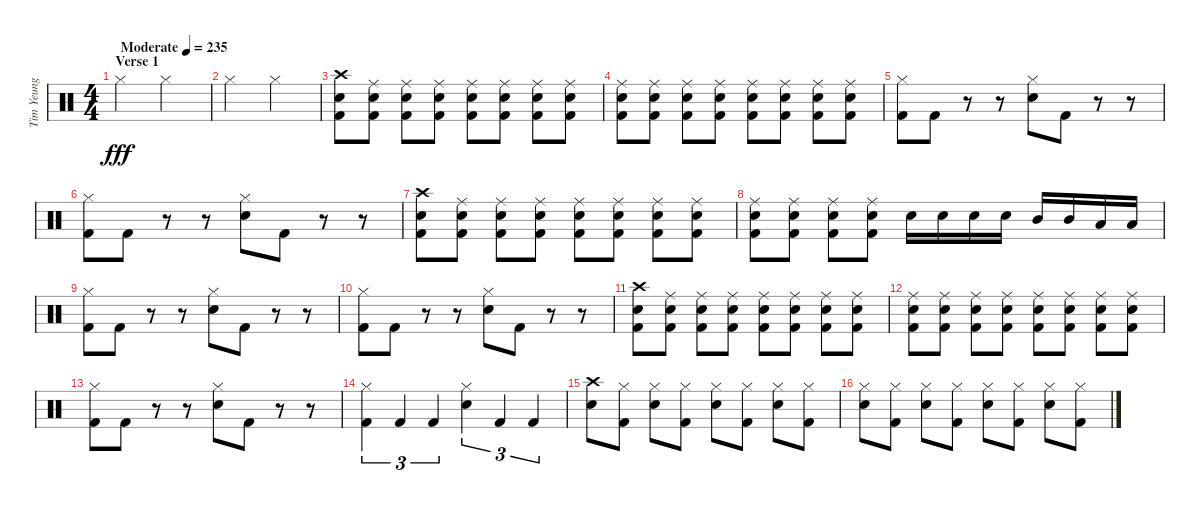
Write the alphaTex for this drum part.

\track ("Tim Yeung" "Tim Yeung") {instrument percussion}
\staff {score}
\articulation defaults
\ts (4 4)
\section ("" "Verse 1")
\tempo (235 "Moderate")
\clef neutral
\ks c "Hi-Hat (closed)".2{dy fff} "Hi-Hat (closed)".2
|
"Hi-Hat (closed)".2 "Hi-Hat (closed)".2 |
("Crash high (hit)" "Electric Snare (hit)" "Kick (hit) 2").8 ("Ride (middle)" "Electric Snare (hit)" "Kick (hit) 2").8 ("Ride (middle)" "Electric Snare (hit)" "Kick (hit) 2").8 ("Ride (middle)" "Electric Snare (hit)" "Kick (hit) 2").8 ("Ride (middle)" "Electric Snare (hit)" "Kick (hit) 2").8 ("Ride (middle)" "Electric Snare (hit)" "Kick (hit) 2").8 ("Ride (middle)" "Electric Snare (hit)" "Kick (hit) 2").8 ("Ride (middle)" "Electric Snare (hit)" "Kick (hit) 2").8 |
("Ride (middle)" "Electric Snare (hit)" "Kick (hit) 2").8 ("Ride (middle)" "Electric Snare (hit)" "Kick (hit) 2").8 ("Ride (middle)" "Electric Snare (hit)" "Kick (hit) 2").8 ("Ride (middle)" "Electric Snare (hit)" "Kick (hit) 2").8 ("Ride (middle)" "Electric Snare (hit)" "Kick (hit) 2").8 ("Ride (middle)" "Electric Snare (hit)" "Kick (hit) 2").8 ("Ride (middle)" "Electric Snare (hit)" "Kick (hit) 2").8 ("Ride (middle)" "Electric Snare (hit)" "Kick (hit) 2").8 |
("Hi-Hat (closed)" "Kick (hit) 2").8 "Kick (hit) 2".8 r.8 r.8 ("Hi-Hat (closed)" "Electric Snare (hit)").8 "Kick (hit) 2".8 r.8 r.8 |
("Hi-Hat (closed)" "Kick (hit) 2").8 "Kick (hit) 2".8 r.8 r.8 ("Hi-Hat (closed)" "Electric Snare (hit)").8 "Kick (hit) 2".8 r.8 r.8 |
("Crash high (hit)" "Electric Snare (hit)" "Kick (hit) 2").8 ("Ride (middle)" "Electric Snare (hit)" "Kick (hit) 2").8 ("Ride (middle)" "Electric Snare (hit)" "Kick (hit) 2").8 ("Ride (middle)" "Electric Snare (hit)" "Kick (hit) 2").8 ("Ride (middle)" "Electric Snare (hit)" "Kick (hit) 2").8 ("Ride (middle)" "Electric Snare (hit)" "Kick (hit) 2").8 ("Ride (middle)" "Electric Snare (hit)" "Kick (hit) 2").8 ("Ride (middle)" "Electric Snare (hit)" "Kick (hit) 2").8 |
("Ride (middle)" "Electric Snare (hit)" "Kick (hit) 2").8 ("Ride (middle)" "Electric Snare (hit)" "Kick (hit) 2").8 ("Ride (middle)" "Electric Snare (hit)" "Kick (hit) 2").8 ("Ride (middle)" "Electric Snare (hit)" "Kick (hit) 2").8 "Electric Snare (hit)".16 "Electric Snare (hit)".16 "Electric Snare (hit)".16 "Electric Snare (hit)".16 "Mid Tom (hit)".16 "Mid Tom (hit)".16 "Low Tom (hit)".16 "Low Tom (hit)".16 |
("Hi-Hat (closed)" "Kick (hit) 2").8 "Kick (hit) 2".8 r.8 r.8 ("Hi-Hat (closed)" "Electric Snare (hit)").8 "Kick (hit) 2".8 r.8 r.8 |
("Hi-Hat (closed)" "Kick (hit) 2").8 "Kick (hit) 2".8 r.8 r.8 ("Hi-Hat (closed)" "Electric Snare (hit)").8 "Kick (hit) 2".8 r.8 r.8 |
("Crash high (hit)" "Electric Snare (hit)" "Kick (hit) 2").8 ("Ride (middle)" "Electric Snare (hit)" "Kick (hit) 2").8 ("Ride (middle)" "Electric Snare (hit)" "Kick (hit) 2").8 ("Ride (middle)" "Electric Snare (hit)" "Kick (hit) 2").8 ("Ride (middle)" "Electric Snare (hit)" "Kick (hit) 2").8 ("Ride (middle)" "Electric Snare (hit)" "Kick (hit) 2").8 ("Ride (middle)" "Electric Snare (hit)" "Kick (hit) 2").8 ("Ride (middle)" "Electric Snare (hit)" "Kick (hit) 2").8 |
("Ride (middle)" "Electric Snare (hit)" "Kick (hit) 2").8 ("Ride (middle)" "Electric Snare (hit)" "Kick (hit) 2").8 ("Ride (middle)" "Electric Snare (hit)" "Kick (hit) 2").8 ("Ride (middle)" "Electric Snare (hit)" "Kick (hit) 2").8 ("Ride (middle)" "Electric Snare (hit)" "Kick (hit) 2").8 ("Ride (middle)" "Electric Snare (hit)" "Kick (hit) 2").8 ("Ride (middle)" "Electric Snare (hit)" "Kick (hit) 2").8 ("Ride (middle)" "Electric Snare (hit)" "Kick (hit) 2").8 |
("Hi-Hat (closed)" "Kick (hit) 2").8 "Kick (hit) 2".8 r.8 r.8 ("Hi-Hat (closed)" "Electric Snare (hit)").8 "Kick (hit) 2".8 r.8 r.8 |
("Hi-Hat (closed)" "Kick (hit) 2").4{tu (3 2)} "Kick (hit) 2".4{tu (3 2)} "Kick (hit) 2".4{tu (3 2)} ("Hi-Hat (closed)" "Electric Snare (hit)").4{tu (3 2)} "Kick (hit) 2".4{tu (3 2)} "Kick (hit) 2".4{tu (3 2)} |
("Crash high (hit)" "Electric Snare (hit)").8 ("Hi-Hat (closed)" "Kick (hit) 2").8 ("Hi-Hat (closed)" "Electric Snare (hit)").8 ("Hi-Hat (closed)" "Kick (hit) 2").8 ("Hi-Hat (closed)" "Electric Snare (hit)").8 ("Hi-Hat (closed)" "Kick (hit) 2").8 ("Hi-Hat (closed)" "Electric Snare (hit)").8 ("Hi-Hat (closed)" "Kick (hit) 2").8 |
("Hi-Hat (closed)" "Electric Snare (hit)").8 ("Hi-Hat (closed)" "Kick (hit) 2").8 ("Hi-Hat (closed)" "Electric Snare (hit)").8 ("Hi-Hat (closed)" "Kick (hit) 2").8 ("Hi-Hat (closed)" "Electric Snare (hit)").8 ("Hi-Hat (closed)" "Kick (hit) 2").8 ("Hi-Hat (closed)" "Electric Snare (hit)").8 ("Hi-Hat (closed)" "Kick (hit) 2").8
